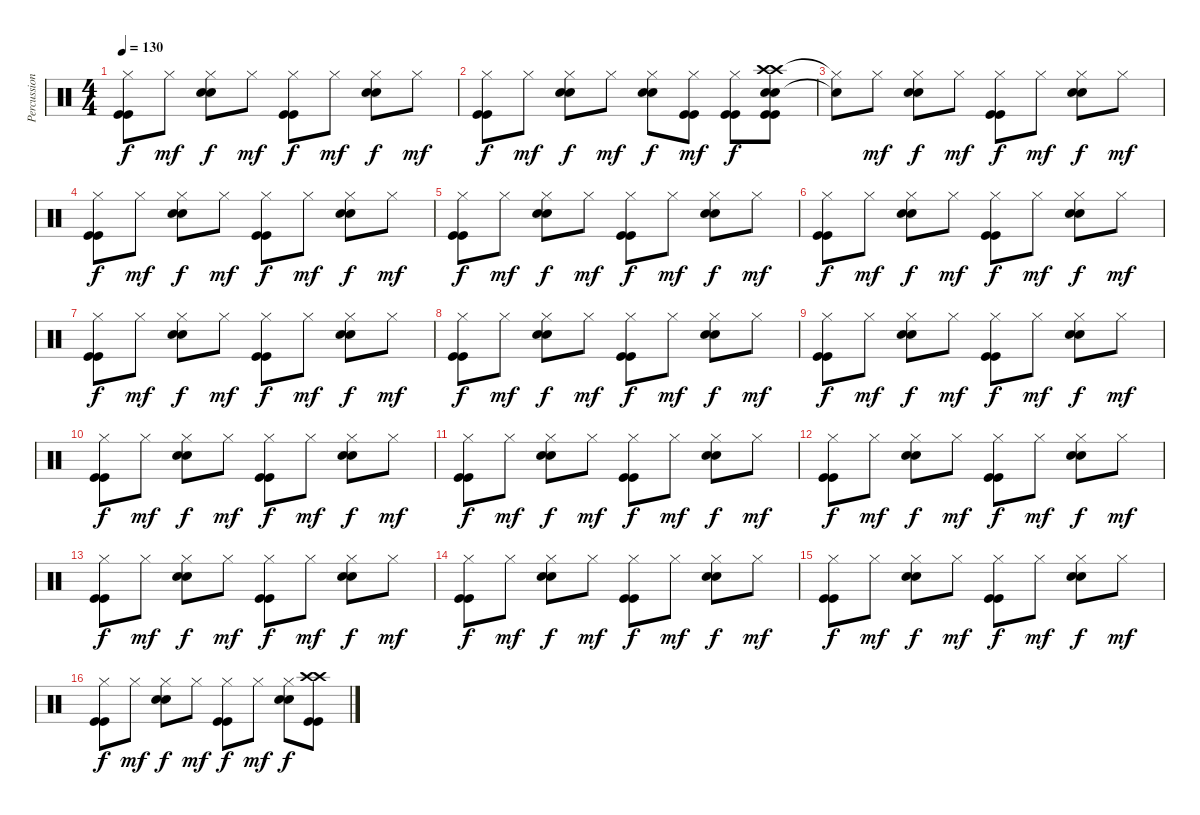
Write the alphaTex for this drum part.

\track ("Percussions" "Percussion") {instrument percussion}
\staff {score}
\articulation defaults
\ts (4 4)
\tempo 130
\clef neutral
\ks c
("Hi-Hat (closed)" "Kick (hit)" "Kick (hit)").8{dy f} "Hi-Hat (closed)".8{dy mf} ("Hi-Hat (closed)" "Snare (hit) 2" "Snare (hit) 2").8{dy f} "Hi-Hat (closed)".8{dy mf} ("Hi-Hat (closed)" "Kick (hit)" "Kick (hit)").8{dy f} "Hi-Hat (closed)".8{dy mf} ("Hi-Hat (closed)" "Snare (hit) 2" "Snare (hit) 2").8{dy f} "Hi-Hat (closed)".8{dy mf} |
("Hi-Hat (closed)" "Kick (hit)" "Kick (hit)").8{dy f} "Hi-Hat (closed)".8{dy mf} ("Hi-Hat (closed)" "Snare (hit) 2" "Snare (hit) 2").8{dy f} "Hi-Hat (closed)".8{dy mf} ("Hi-Hat (closed)" "Snare (hit) 2" "Snare (hit) 2").8{dy f} ("Hi-Hat (closed)" "Kick (hit)" "Kick (hit)").8{dy mf} ("Hi-Hat (closed)" "Kick (hit)" "Kick (hit)").8{dy f} ("Crash high (hit)" "Snare (hit) 2" "Snare (hit) 2" "Crash high (hit)" "Kick (hit)" "Kick (hit)").8 |
("Hi-Hat (closed)"{t} "Snare (hit)"{t}).8 "Hi-Hat (closed)".8{dy mf} ("Hi-Hat (closed)" "Snare (hit) 2" "Snare (hit) 2").8{dy f} "Hi-Hat (closed)".8{dy mf} ("Hi-Hat (closed)" "Kick (hit)" "Kick (hit)").8{dy f} "Hi-Hat (closed)".8{dy mf} ("Hi-Hat (closed)" "Snare (hit) 2" "Snare (hit) 2").8{dy f} "Hi-Hat (closed)".8{dy mf} |
("Hi-Hat (closed)" "Kick (hit)" "Kick (hit)").8{dy f} "Hi-Hat (closed)".8{dy mf} ("Hi-Hat (closed)" "Snare (hit) 2" "Snare (hit) 2").8{dy f} "Hi-Hat (closed)".8{dy mf} ("Hi-Hat (closed)" "Kick (hit)" "Kick (hit)").8{dy f} "Hi-Hat (closed)".8{dy mf} ("Hi-Hat (closed)" "Snare (hit) 2" "Snare (hit) 2").8{dy f} "Hi-Hat (closed)".8{dy mf} |
("Hi-Hat (closed)" "Kick (hit)" "Kick (hit)").8{dy f} "Hi-Hat (closed)".8{dy mf} ("Hi-Hat (closed)" "Snare (hit) 2" "Snare (hit) 2").8{dy f} "Hi-Hat (closed)".8{dy mf} ("Hi-Hat (closed)" "Kick (hit)" "Kick (hit)").8{dy f} "Hi-Hat (closed)".8{dy mf} ("Hi-Hat (closed)" "Snare (hit) 2" "Snare (hit) 2").8{dy f} "Hi-Hat (closed)".8{dy mf} |
("Hi-Hat (closed)" "Kick (hit)" "Kick (hit)").8{dy f} "Hi-Hat (closed)".8{dy mf} ("Hi-Hat (closed)" "Snare (hit) 2" "Snare (hit) 2").8{dy f} "Hi-Hat (closed)".8{dy mf} ("Hi-Hat (closed)" "Kick (hit)" "Kick (hit)").8{dy f} "Hi-Hat (closed)".8{dy mf} ("Hi-Hat (closed)" "Snare (hit) 2" "Snare (hit) 2").8{dy f} "Hi-Hat (closed)".8{dy mf} |
("Hi-Hat (closed)" "Kick (hit)" "Kick (hit)").8{dy f} "Hi-Hat (closed)".8{dy mf} ("Hi-Hat (closed)" "Snare (hit) 2" "Snare (hit) 2").8{dy f} "Hi-Hat (closed)".8{dy mf} ("Hi-Hat (closed)" "Kick (hit)" "Kick (hit)").8{dy f} "Hi-Hat (closed)".8{dy mf} ("Hi-Hat (closed)" "Snare (hit) 2" "Snare (hit) 2").8{dy f} "Hi-Hat (closed)".8{dy mf} |
("Hi-Hat (closed)" "Kick (hit)" "Kick (hit)").8{dy f} "Hi-Hat (closed)".8{dy mf} ("Hi-Hat (closed)" "Snare (hit) 2" "Snare (hit) 2").8{dy f} "Hi-Hat (closed)".8{dy mf} ("Hi-Hat (closed)" "Kick (hit)" "Kick (hit)").8{dy f} "Hi-Hat (closed)".8{dy mf} ("Hi-Hat (closed)" "Snare (hit) 2" "Snare (hit) 2").8{dy f} "Hi-Hat (closed)".8{dy mf} |
("Hi-Hat (closed)" "Kick (hit)" "Kick (hit)").8{dy f} "Hi-Hat (closed)".8{dy mf} ("Hi-Hat (closed)" "Snare (hit) 2" "Snare (hit) 2").8{dy f} "Hi-Hat (closed)".8{dy mf} ("Hi-Hat (closed)" "Kick (hit)" "Kick (hit)").8{dy f} "Hi-Hat (closed)".8{dy mf} ("Hi-Hat (closed)" "Snare (hit) 2" "Snare (hit) 2").8{dy f} "Hi-Hat (closed)".8{dy mf} |
("Hi-Hat (closed)" "Kick (hit)" "Kick (hit)").8{dy f} "Hi-Hat (closed)".8{dy mf} ("Hi-Hat (closed)" "Snare (hit) 2" "Snare (hit) 2").8{dy f} "Hi-Hat (closed)".8{dy mf} ("Hi-Hat (closed)" "Kick (hit)" "Kick (hit)").8{dy f} "Hi-Hat (closed)".8{dy mf} ("Hi-Hat (closed)" "Snare (hit) 2" "Snare (hit) 2").8{dy f} "Hi-Hat (closed)".8{dy mf} |
("Hi-Hat (closed)" "Kick (hit)" "Kick (hit)").8{dy f} "Hi-Hat (closed)".8{dy mf} ("Hi-Hat (closed)" "Snare (hit) 2" "Snare (hit) 2").8{dy f} "Hi-Hat (closed)".8{dy mf} ("Hi-Hat (closed)" "Kick (hit)" "Kick (hit)").8{dy f} "Hi-Hat (closed)".8{dy mf} ("Hi-Hat (closed)" "Snare (hit) 2" "Snare (hit) 2").8{dy f} "Hi-Hat (closed)".8{dy mf} |
("Hi-Hat (closed)" "Kick (hit)" "Kick (hit)").8{dy f} "Hi-Hat (closed)".8{dy mf} ("Hi-Hat (closed)" "Snare (hit) 2" "Snare (hit) 2").8{dy f} "Hi-Hat (closed)".8{dy mf} ("Hi-Hat (closed)" "Kick (hit)" "Kick (hit)").8{dy f} "Hi-Hat (closed)".8{dy mf} ("Hi-Hat (closed)" "Snare (hit) 2" "Snare (hit) 2").8{dy f} "Hi-Hat (closed)".8{dy mf} |
("Hi-Hat (closed)" "Kick (hit)" "Kick (hit)").8{dy f} "Hi-Hat (closed)".8{dy mf} ("Hi-Hat (closed)" "Snare (hit) 2" "Snare (hit) 2").8{dy f} "Hi-Hat (closed)".8{dy mf} ("Hi-Hat (closed)" "Kick (hit)" "Kick (hit)").8{dy f} "Hi-Hat (closed)".8{dy mf} ("Hi-Hat (closed)" "Snare (hit) 2" "Snare (hit) 2").8{dy f} "Hi-Hat (closed)".8{dy mf} |
("Hi-Hat (closed)" "Kick (hit)" "Kick (hit)").8{dy f} "Hi-Hat (closed)".8{dy mf} ("Hi-Hat (closed)" "Snare (hit) 2" "Snare (hit) 2").8{dy f} "Hi-Hat (closed)".8{dy mf} ("Hi-Hat (closed)" "Kick (hit)" "Kick (hit)").8{dy f} "Hi-Hat (closed)".8{dy mf} ("Hi-Hat (closed)" "Snare (hit) 2" "Snare (hit) 2").8{dy f} "Hi-Hat (closed)".8{dy mf} |
("Hi-Hat (closed)" "Kick (hit)" "Kick (hit)").8{dy f} "Hi-Hat (closed)".8{dy mf} ("Hi-Hat (closed)" "Snare (hit) 2" "Snare (hit) 2").8{dy f} "Hi-Hat (closed)".8{dy mf} ("Hi-Hat (closed)" "Kick (hit)" "Kick (hit)").8{dy f} "Hi-Hat (closed)".8{dy mf} ("Hi-Hat (closed)" "Snare (hit) 2" "Snare (hit) 2").8{dy f} "Hi-Hat (closed)".8{dy mf} |
("Hi-Hat (closed)" "Kick (hit)" "Kick (hit)").8{dy f} "Hi-Hat (closed)".8{dy mf} ("Hi-Hat (closed)" "Snare (hit) 2" "Snare (hit) 2").8{dy f} "Hi-Hat (closed)".8{dy mf} ("Hi-Hat (closed)" "Kick (hit)" "Kick (hit)").8{dy f} "Hi-Hat (closed)".8{dy mf} ("Hi-Hat (closed)" "Snare (hit) 2" "Snare (hit) 2").8{dy f} ("Crash high (hit)" "Crash high (hit)" "Kick (hit)" "Kick (hit)").8
